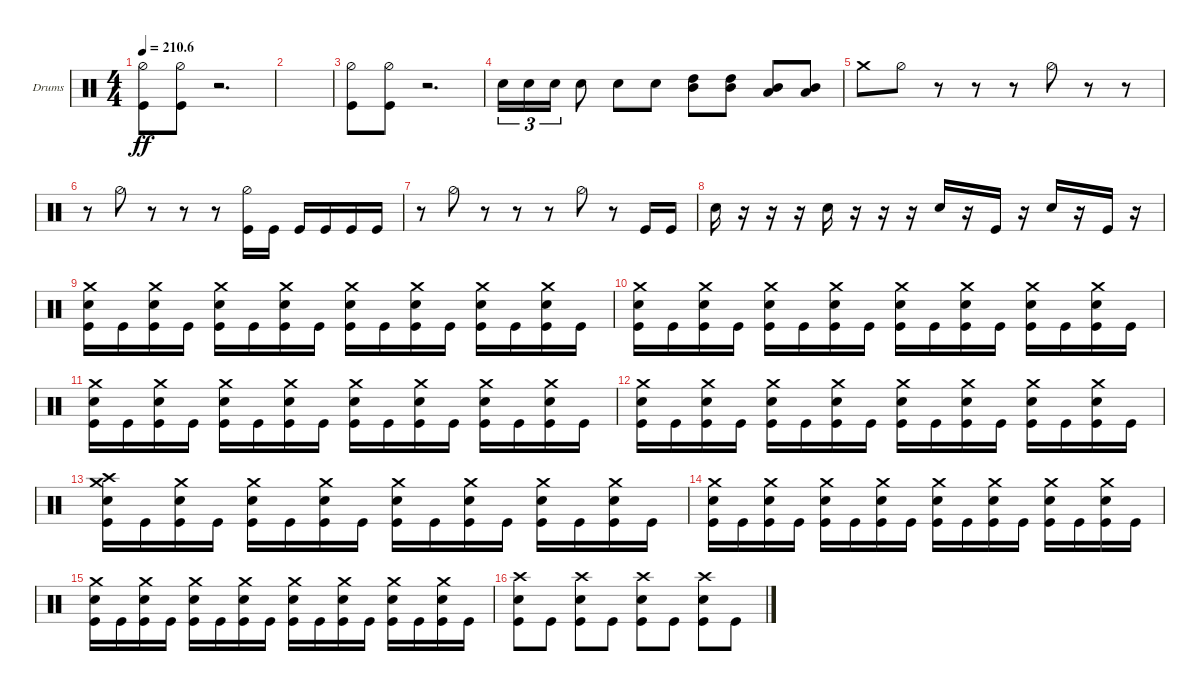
\bracketExtendMode groupsimilarinstruments
\firstSystemTrackNameOrientation horizontal
\otherSystemsTrackNameOrientation horizontal
\track ("Drumkit" "Drums") {instrument percussion}
\staff {score}
\articulation defaults
\ts (4 4)
\tempo
210.6
\accidentals auto
\clef neutral
\ottava regular
\simile none
\ks c
("Kick (hit)" "Hi-Hat (half)").8{dy ff} ("Kick (hit)" "Hi-Hat (half)").8 r.2{d} |
|
("Kick (hit)" "Hi-Hat (half)").8 ("Kick (hit)" "Hi-Hat (half)").8 r.2{d} |
"Snare (hit) 2".16{tu (3 2)} "Snare (hit) 2".16{tu (3 2)} "Snare (hit) 2".16{tu (3 2)} "Snare (hit) 2".8 "Snare (hit) 2".8 "Snare (hit) 2".8 ("High Tom (hit)" "Mid Tom (hit)").8 ("High Tom (hit)" "Mid Tom (hit)").8 ("Low Tom (hit)" "Mid Tom (hit)").8 ("Low Tom (hit)" "Mid Tom (hit)").8 |
"Crash medium (hit)".8 "Hi-Hat (half)".8 r.8 r.8 r.8 "Hi-Hat (half)".8 r.8 r.8 |
r.8 "Hi-Hat (half)".8 r.8 r.8 r.8 ("Hi-Hat (half)" "Kick (hit)").16 "Kick (hit)".16 "Kick (hit)".16 "Kick (hit)".16 "Kick (hit)".16 "Kick (hit)".16 |
r.8 "Hi-Hat (half)".8 r.8 r.8 r.8 "Hi-Hat (half)".8 r.8 "Kick (hit)".16 "Kick (hit)".16 |
"Snare (hit) 2".16 r.16 r.16 r.16 "Snare (hit) 2".16 r.16 r.16 r.16 "Snare (hit) 2".16 r.16 "Kick (hit)".16 r.16 "Snare (hit) 2".16 r.16 "Kick (hit)".16 r.16 |
("Kick (hit)" "Crash medium (hit)" "Snare (hit) 2").16 "Kick (hit)".16 ("Kick (hit)" "Snare (hit) 2" "Crash medium (hit)").16 "Kick (hit)".16 ("Kick (hit)" "Crash medium (hit)" "Snare (hit) 2").16 "Kick (hit)".16 ("Kick (hit)" "Snare (hit) 2" "Crash medium (hit)").16 "Kick (hit)".16 ("Kick (hit)" "Crash medium (hit)" "Snare (hit) 2").16 "Kick (hit)".16 ("Kick (hit)" "Snare (hit) 2" "Crash medium (hit)").16 "Kick (hit)".16 ("Kick (hit)" "Crash medium (hit)" "Snare (hit) 2").16 "Kick (hit)".16 ("Kick (hit)" "Snare (hit) 2" "Crash medium (hit)").16 "Kick (hit)".16 |
("Kick (hit)" "Crash medium (hit)" "Snare (hit) 2").16 "Kick (hit)".16 ("Kick (hit)" "Snare (hit) 2" "Crash medium (hit)").16 "Kick (hit)".16 ("Kick (hit)" "Crash medium (hit)" "Snare (hit) 2").16 "Kick (hit)".16 ("Kick (hit)" "Snare (hit) 2" "Crash medium (hit)").16 "Kick (hit)".16 ("Kick (hit)" "Crash medium (hit)" "Snare (hit) 2").16 "Kick (hit)".16 ("Kick (hit)" "Snare (hit) 2" "Crash medium (hit)").16 "Kick (hit)".16 ("Kick (hit)" "Crash medium (hit)" "Snare (hit) 2").16 "Kick (hit)".16 ("Kick (hit)" "Snare (hit) 2" "Crash medium (hit)").16 "Kick (hit)".16 |
("Kick (hit)" "Crash medium (hit)" "Snare (hit) 2").16 "Kick (hit)".16 ("Kick (hit)" "Snare (hit) 2" "Crash medium (hit)").16 "Kick (hit)".16 ("Kick (hit)" "Crash medium (hit)" "Snare (hit) 2").16 "Kick (hit)".16 ("Kick (hit)" "Snare (hit) 2" "Crash medium (hit)").16 "Kick (hit)".16 ("Kick (hit)" "Crash medium (hit)" "Snare (hit) 2").16 "Kick (hit)".16 ("Kick (hit)" "Snare (hit) 2" "Crash medium (hit)").16 "Kick (hit)".16 ("Kick (hit)" "Crash medium (hit)" "Snare (hit) 2").16 "Kick (hit)".16 ("Kick (hit)" "Snare (hit) 2" "Crash medium (hit)").16 "Kick (hit)".16 |
("Kick (hit)" "Crash medium (hit)" "Snare (hit) 2").16 "Kick (hit)".16 ("Kick (hit)" "Snare (hit) 2" "Crash medium (hit)").16 "Kick (hit)".16 ("Kick (hit)" "Crash medium (hit)" "Snare (hit) 2").16 "Kick (hit)".16 ("Kick (hit)" "Snare (hit) 2" "Crash medium (hit)").16 "Kick (hit)".16 ("Kick (hit)" "Crash medium (hit)" "Snare (hit) 2").16 "Kick (hit)".16 ("Kick (hit)" "Snare (hit) 2" "Crash medium (hit)").16 "Kick (hit)".16 ("Kick (hit)" "Crash medium (hit)" "Snare (hit) 2").16 "Kick (hit)".16 ("Kick (hit)" "Snare (hit) 2" "Crash medium (hit)").16 "Kick (hit)".16 |
("Kick (hit)" "Crash medium (hit)" "Snare (hit) 2" "Crash high (hit)").16 "Kick (hit)".16 ("Kick (hit)" "Snare (hit) 2" "Crash medium (hit)").16 "Kick (hit)".16 ("Kick (hit)" "Crash medium (hit)" "Snare (hit) 2").16 "Kick (hit)".16 ("Kick (hit)" "Snare (hit) 2" "Crash medium (hit)").16 "Kick (hit)".16 ("Kick (hit)" "Crash medium (hit)" "Snare (hit) 2").16 "Kick (hit)".16 ("Kick (hit)" "Snare (hit) 2" "Crash medium (hit)").16 "Kick (hit)".16 ("Kick (hit)" "Crash medium (hit)" "Snare (hit) 2").16 "Kick (hit)".16 ("Kick (hit)" "Snare (hit) 2" "Crash medium (hit)").16 "Kick (hit)".16 |
("Kick (hit)" "Crash medium (hit)" "Snare (hit) 2").16 "Kick (hit)".16 ("Kick (hit)" "Snare (hit) 2" "Crash medium (hit)").16 "Kick (hit)".16 ("Kick (hit)" "Crash medium (hit)" "Snare (hit) 2").16 "Kick (hit)".16 ("Kick (hit)" "Snare (hit) 2" "Crash medium (hit)").16 "Kick (hit)".16 ("Kick (hit)" "Crash medium (hit)" "Snare (hit) 2").16 "Kick (hit)".16 ("Kick (hit)" "Snare (hit) 2" "Crash medium (hit)").16 "Kick (hit)".16 ("Kick (hit)" "Crash medium (hit)" "Snare (hit) 2").16 "Kick (hit)".16 ("Kick (hit)" "Snare (hit) 2" "Crash medium (hit)").16 "Kick (hit)".16 |
("Kick (hit)" "Crash medium (hit)" "Snare (hit) 2").16 "Kick (hit)".16 ("Kick (hit)" "Snare (hit) 2" "Crash medium (hit)").16 "Kick (hit)".16 ("Kick (hit)" "Crash medium (hit)" "Snare (hit) 2").16 "Kick (hit)".16 ("Kick (hit)" "Snare (hit) 2" "Crash medium (hit)").16 "Kick (hit)".16 ("Kick (hit)" "Crash medium (hit)" "Snare (hit) 2").16 "Kick (hit)".16 ("Kick (hit)" "Snare (hit) 2" "Crash medium (hit)").16 "Kick (hit)".16 ("Kick (hit)" "Crash medium (hit)" "Snare (hit) 2").16 "Kick (hit)".16 ("Kick (hit)" "Snare (hit) 2" "Crash medium (hit)").16 "Kick (hit)".16 |
("Kick (hit)" "Snare (hit) 2" "Crash high (hit)").8 "Kick (hit)".8 ("Kick (hit)" "Snare (hit) 2" "Crash high (hit)").8 "Kick (hit)".8 ("Kick (hit)" "Snare (hit) 2" "Crash high (hit)").8 "Kick (hit)".8 ("Kick (hit)" "Snare (hit) 2" "Crash high (hit)").8 "Kick (hit)".8
